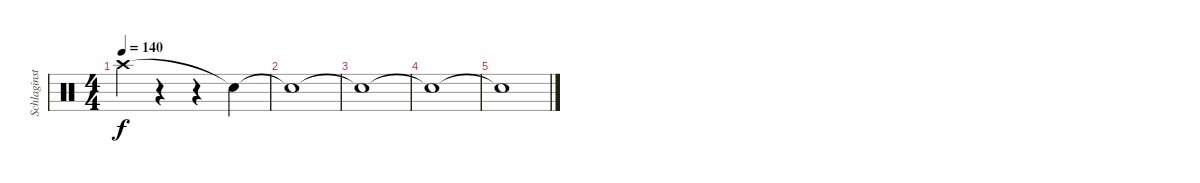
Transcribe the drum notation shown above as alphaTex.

\track ("Schlaginstrumente - Auswahl" "Schlaginst") {instrument percussion}
\staff {score}
\articulation defaults
\ts (4 4)
\tempo 140
\clef neutral
\ks c "Crash high (hit)".4{dy f}
r.4 r.4 "Snare (hit)"{t}.4 |
"Snare (hit)"{t}.1 |
"Snare (hit)"{t}.1 |
"Snare (hit)"{t}.1 |
"Snare (hit)"{t}.1
